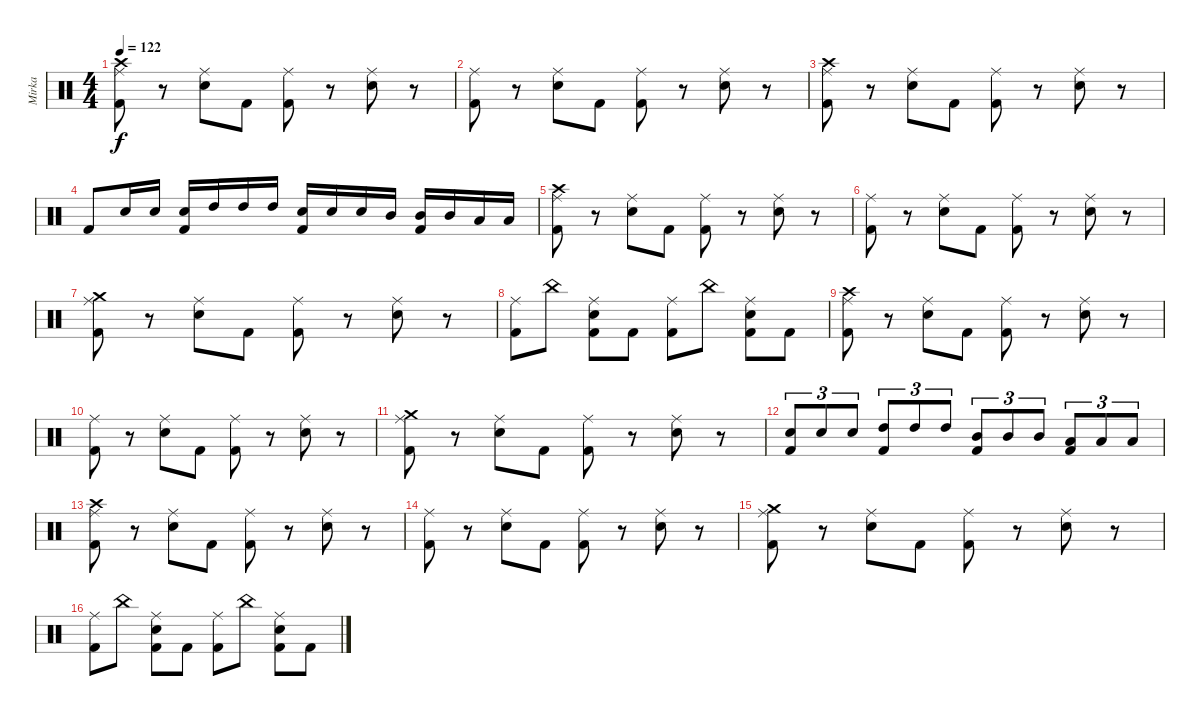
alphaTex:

\track ("Mirka" "Mirka") {instrument percussion}
\staff {score}
\articulation defaults
\ts (4 4)
\tempo 122
\clef neutral
\ks c
("Crash high (hit)" "Ride (middle)" "Kick (hit) 2").8{dy f} r.8 ("Ride (middle)" "Electric Snare (hit)").8 "Kick (hit) 2".8 ("Ride (middle)" "Kick (hit) 2").8 r.8 ("Ride (middle)" "Electric Snare (hit)").8 r.8 |
("Ride (middle)" "Kick (hit) 2").8 r.8 ("Ride (middle)" "Electric Snare (hit)").8 "Kick (hit) 2".8 ("Ride (middle)" "Kick (hit) 2").8 r.8 ("Ride (middle)" "Electric Snare (hit)").8 r.8 |
("Crash high (hit)" "Ride (middle)" "Kick (hit) 2").8 r.8 ("Ride (middle)" "Electric Snare (hit)").8 "Kick (hit) 2".8 ("Ride (middle)" "Kick (hit) 2").8 r.8 ("Ride (middle)" "Electric Snare (hit)").8 r.8 |
"Kick (hit) 2".8 "Electric Snare (hit)".16 "Electric Snare (hit)".16 ("Electric Snare (hit)" "Kick (hit) 2").16 "High Tom (hit)".16 "High Tom (hit)".16 "High Tom (hit)".16 ("Electric Snare (hit)" "Kick (hit) 2").16 "Electric Snare (hit)".16 "Electric Snare (hit)".16 "Mid Tom (hit)".16 ("Mid Tom (hit)" "Kick (hit) 2").16 "Mid Tom (hit)".16 "Low Tom (hit)".16 "Low Tom (hit)".16 |
("Crash high (hit)" "Ride (middle)" "Kick (hit) 2").8 r.8 ("Ride (middle)" "Electric Snare (hit)").8 "Kick (hit) 2".8 ("Ride (middle)" "Kick (hit) 2").8 r.8 ("Ride (middle)" "Electric Snare (hit)").8 r.8 |
("Ride (middle)" "Kick (hit) 2").8 r.8 ("Ride (middle)" "Electric Snare (hit)").8 "Kick (hit) 2".8 ("Ride (middle)" "Kick (hit) 2").8 r.8 ("Ride (middle)" "Electric Snare (hit)").8 r.8 |
("Crash medium (hit)" "Ride (middle)" "Kick (hit) 2").8 r.8 ("Ride (middle)" "Electric Snare (hit)").8 "Kick (hit) 2".8 ("Ride (middle)" "Kick (hit) 2").8 r.8 ("Ride (middle)" "Electric Snare (hit)").8 r.8 |
("Ride (middle)" "Kick (hit) 2").8 "China (hit)".8 ("Ride (middle)" "Electric Snare (hit)" "Kick (hit) 2").8 "Kick (hit) 2".8 ("Ride (middle)" "Kick (hit) 2").8 "China (hit)".8 ("Ride (middle)" "Electric Snare (hit)" "Kick (hit) 2").8 "Kick (hit) 2".8 |
("Crash high (hit)" "Ride (middle)" "Kick (hit) 2").8 r.8 ("Ride (middle)" "Electric Snare (hit)").8 "Kick (hit) 2".8 ("Ride (middle)" "Kick (hit) 2").8 r.8 ("Ride (middle)" "Electric Snare (hit)").8 r.8 |
("Ride (middle)" "Kick (hit) 2").8 r.8 ("Ride (middle)" "Electric Snare (hit)").8 "Kick (hit) 2".8 ("Ride (middle)" "Kick (hit) 2").8 r.8 ("Ride (middle)" "Electric Snare (hit)").8 r.8 |
("Crash medium (hit)" "Ride (middle)" "Kick (hit) 2").8 r.8 ("Ride (middle)" "Electric Snare (hit)").8 "Kick (hit) 2".8 ("Ride (middle)" "Kick (hit) 2").8 r.8 ("Ride (middle)" "Electric Snare (hit)").8 r.8 |
("Electric Snare (hit)" "Kick (hit) 2").8{tu (3 2)} "Electric Snare (hit)".8{tu (3 2)} "Electric Snare (hit)".8{tu (3 2)} ("High Tom (hit)" "Kick (hit) 2").8{tu (3 2)} "High Tom (hit)".8{tu (3 2)} "High Tom (hit)".8{tu (3 2)} ("Mid Tom (hit)" "Kick (hit) 2").8{tu (3 2)} "Mid Tom (hit)".8{tu (3 2)} "Mid Tom (hit)".8{tu (3 2)} ("Low Tom (hit)" "Kick (hit) 2").8{tu (3 2)} "Low Tom (hit)".8{tu (3 2)} "Low Tom (hit)".8{tu (3 2)} |
("Crash high (hit)" "Ride (middle)" "Kick (hit) 2").8 r.8 ("Ride (middle)" "Electric Snare (hit)").8 "Kick (hit) 2".8 ("Ride (middle)" "Kick (hit) 2").8 r.8 ("Ride (middle)" "Electric Snare (hit)").8 r.8 |
("Ride (middle)" "Kick (hit) 2").8 r.8 ("Ride (middle)" "Electric Snare (hit)").8 "Kick (hit) 2".8 ("Ride (middle)" "Kick (hit) 2").8 r.8 ("Ride (middle)" "Electric Snare (hit)").8 r.8 |
("Crash medium (hit)" "Ride (middle)" "Kick (hit) 2").8 r.8 ("Ride (middle)" "Electric Snare (hit)").8 "Kick (hit) 2".8 ("Ride (middle)" "Kick (hit) 2").8 r.8 ("Ride (middle)" "Electric Snare (hit)").8 r.8 |
("Ride (middle)" "Kick (hit) 2").8 "China (hit)".8 ("Ride (middle)" "Electric Snare (hit)" "Kick (hit) 2").8 "Kick (hit) 2".8 ("Ride (middle)" "Kick (hit) 2").8 "China (hit)".8 ("Ride (middle)" "Electric Snare (hit)" "Kick (hit) 2").8 "Kick (hit) 2".8
